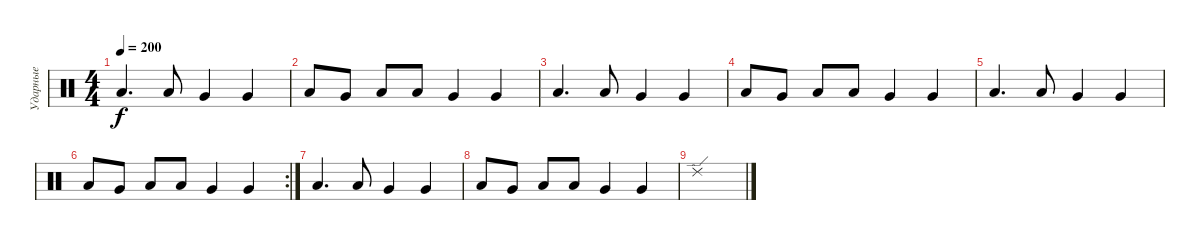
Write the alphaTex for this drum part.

\track ("Ударные" "Ударные") {instrument percussion}
\staff {score}
\articulation defaults
\ts (4 4)
\tempo 200
\clef neutral
\ks c "Low Floor Tom (hit)".4{d dy f} "Low Floor Tom (hit)".8 "Very Low Tom (hit)".4 "Very Low Tom (hit)".4
|
"Low Floor Tom (hit)".8 "Very Low Tom (hit)".8 "Low Floor Tom (hit)".8 "Low Floor Tom (hit)".8 "Very Low Tom (hit)".4 "Very Low Tom (hit)".4 |
"Low Floor Tom (hit)".4{d} "Low Floor Tom (hit)".8 "Very Low Tom (hit)".4 "Very Low Tom (hit)".4 |
"Low Floor Tom (hit)".8 "Very Low Tom (hit)".8 "Low Floor Tom (hit)".8 "Low Floor Tom (hit)".8 "Very Low Tom (hit)".4 "Very Low Tom (hit)".4 |
"Low Floor Tom (hit)".4{d} "Low Floor Tom (hit)".8 "Very Low Tom (hit)".4 "Very Low Tom (hit)".4 |
\rc 2 "Low Floor Tom (hit)".8 "Very Low Tom (hit)".8 "Low Floor Tom (hit)".8 "Low Floor Tom (hit)".8 "Very Low Tom (hit)".4 "Very Low Tom (hit)".4
|
"Low Floor Tom (hit)".4{d} "Low Floor Tom (hit)".8 "Very Low Tom (hit)".4 "Very Low Tom (hit)".4 |
"Low Floor Tom (hit)".8 "Very Low Tom (hit)".8 "Low Floor Tom (hit)".8 "Low Floor Tom (hit)".8 "Very Low Tom (hit)".4 "Very Low Tom (hit)".4 |
"Ride (edge) 2".1
